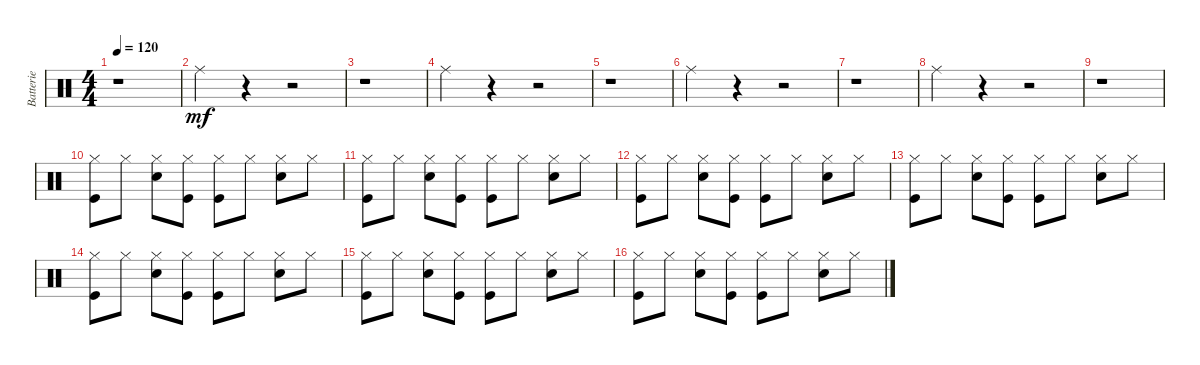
\track ("Batterie" "Batterie") {instrument percussion}
\staff {score}
\articulation defaults
\ts (4 4)
\tempo 120
\clef neutral
\ks c
r.1{dy mf} |
"Ride (middle)".4 r.4 r.2 |
r.1 |
"Ride (middle)".4 r.4 r.2 |
r.1 |
"Ride (middle)".4 r.4 r.2 |
r.1 |
"Ride (middle)".4 r.4 r.2 |
r.1 |
("Hi-Hat (closed)" "Kick (hit)").8 "Hi-Hat (closed)".8 ("Hi-Hat (closed)" "Snare (hit) 2").8 ("Hi-Hat (closed)" "Kick (hit)").8 ("Hi-Hat (closed)" "Kick (hit)").8 "Hi-Hat (closed)".8 ("Hi-Hat (closed)" "Snare (hit) 2").8 "Hi-Hat (closed)".8 |
("Hi-Hat (closed)" "Kick (hit)").8 "Hi-Hat (closed)".8 ("Hi-Hat (closed)" "Snare (hit) 2").8 ("Hi-Hat (closed)" "Kick (hit)").8 ("Hi-Hat (closed)" "Kick (hit)").8 "Hi-Hat (closed)".8 ("Hi-Hat (closed)" "Snare (hit) 2").8 "Hi-Hat (closed)".8 |
("Hi-Hat (closed)" "Kick (hit)").8 "Hi-Hat (closed)".8 ("Hi-Hat (closed)" "Snare (hit) 2").8 ("Hi-Hat (closed)" "Kick (hit)").8 ("Hi-Hat (closed)" "Kick (hit)").8 "Hi-Hat (closed)".8 ("Hi-Hat (closed)" "Snare (hit) 2").8 "Hi-Hat (closed)".8 |
("Hi-Hat (closed)" "Kick (hit)").8 "Hi-Hat (closed)".8 ("Hi-Hat (closed)" "Snare (hit) 2").8 ("Hi-Hat (closed)" "Kick (hit)").8 ("Hi-Hat (closed)" "Kick (hit)").8 "Hi-Hat (closed)".8 ("Hi-Hat (closed)" "Snare (hit) 2").8 "Hi-Hat (closed)".8 |
("Hi-Hat (closed)" "Kick (hit)").8 "Hi-Hat (closed)".8 ("Hi-Hat (closed)" "Snare (hit) 2").8 ("Hi-Hat (closed)" "Kick (hit)").8 ("Hi-Hat (closed)" "Kick (hit)").8 "Hi-Hat (closed)".8 ("Hi-Hat (closed)" "Snare (hit) 2").8 "Hi-Hat (closed)".8 |
("Hi-Hat (closed)" "Kick (hit)").8 "Hi-Hat (closed)".8 ("Hi-Hat (closed)" "Snare (hit) 2").8 ("Hi-Hat (closed)" "Kick (hit)").8 ("Hi-Hat (closed)" "Kick (hit)").8 "Hi-Hat (closed)".8 ("Hi-Hat (closed)" "Snare (hit) 2").8 "Hi-Hat (closed)".8 |
("Hi-Hat (closed)" "Kick (hit)").8 "Hi-Hat (closed)".8 ("Hi-Hat (closed)" "Snare (hit) 2").8 ("Hi-Hat (closed)" "Kick (hit)").8 ("Hi-Hat (closed)" "Kick (hit)").8 "Hi-Hat (closed)".8 ("Hi-Hat (closed)" "Snare (hit) 2").8 "Hi-Hat (closed)".8
